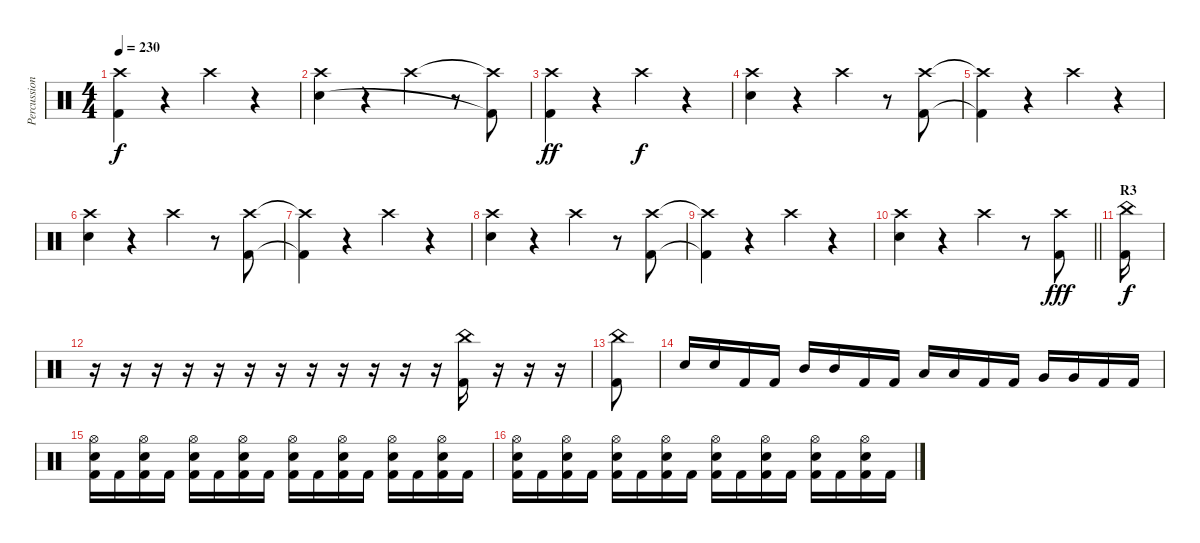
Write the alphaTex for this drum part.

\track ("Percussions" "Percussion") {instrument percussion}
\staff {score}
\articulation defaults
\ts (4 4)
\tempo 230
\clef neutral
\ks c
("Crash high (hit)"{t} "Kick (hit) 2"{t}).4{dy f} r.4 "Crash high (hit)".4 r.4 |
("Crash high (hit)" "Electric Snare (hit)").4 r.4 "Crash high (hit)".4 r.8 ("Crash high (hit)"{t} "Kick (hit) 2"{t}).8 |
("Crash high (hit)" "Kick (hit) 2").4{dy ff} r.4 "Crash high (hit)".4{dy f} r.4 |
("Crash high (hit)" "Electric Snare (hit)").4 r.4 "Crash high (hit)".4 r.8 ("Crash high (hit)" "Kick (hit) 2").8 |
("Crash high (hit)"{t} "Kick (hit) 2"{t}).4 r.4 "Crash high (hit)".4 r.4 |
("Crash high (hit)" "Electric Snare (hit)").4 r.4 "Crash high (hit)".4 r.8 ("Crash high (hit)" "Kick (hit) 2").8 |
("Crash high (hit)"{t} "Kick (hit) 2"{t}).4 r.4 "Crash high (hit)".4 r.4 |
("Crash high (hit)" "Electric Snare (hit)").4 r.4 "Crash high (hit)".4 r.8 ("Crash high (hit)" "Kick (hit) 2").8 |
("Crash high (hit)"{t} "Kick (hit) 2"{t}).4 r.4 "Crash high (hit)".4 r.4 |
\barLineRight lightlight
("Crash high (hit)" "Electric Snare (hit)").4 r.4 "Crash high (hit)".4 r.8 ("Crash high (hit)" "Kick (hit) 2").8{dy fff} |
\section ("" "R3")
("China (hit)" "Kick (hit) 2").16{dy f} |
r.16 r.16 r.16 r.16 r.16 r.16 r.16 r.16 r.16 r.16 r.16 r.16 ("China (hit)" "Kick (hit) 2").16 r.16 r.16 r.16 |
("China (hit)" "Kick (hit) 2").8 |
"Electric Snare (hit)".16 "Electric Snare (hit)".16 "Kick (hit) 2".16 "Kick (hit) 2".16 "Mid Tom (hit)".16 "Mid Tom (hit)".16 "Kick (hit) 2".16 "Kick (hit) 2".16 "Low Tom (hit)".16 "Low Tom (hit)".16 "Kick (hit) 2".16 "Kick (hit) 2".16 "Very Low Tom (hit)".16 "Very Low Tom (hit)".16 "Kick (hit) 2".16 "Kick (hit) 2".16 |
("Hi-Hat (open)" "Electric Snare (hit)" "Kick (hit) 2").16 "Kick (hit) 2".16 ("Hi-Hat (open)" "Electric Snare (hit)" "Kick (hit) 2").16 "Kick (hit) 2".16 ("Hi-Hat (open)" "Electric Snare (hit)" "Kick (hit) 2").16 "Kick (hit) 2".16 ("Hi-Hat (open)" "Electric Snare (hit)" "Kick (hit) 2").16 "Kick (hit) 2".16 ("Hi-Hat (open)" "Electric Snare (hit)" "Kick (hit) 2").16 "Kick (hit) 2".16 ("Hi-Hat (open)" "Electric Snare (hit)" "Kick (hit) 2").16 "Kick (hit) 2".16 ("Hi-Hat (open)" "Electric Snare (hit)" "Kick (hit) 2").16 "Kick (hit) 2".16 ("Hi-Hat (open)" "Electric Snare (hit)" "Kick (hit) 2").16 "Kick (hit) 2".16 |
("Hi-Hat (open)" "Electric Snare (hit)" "Kick (hit) 2").16 "Kick (hit) 2".16 ("Hi-Hat (open)" "Electric Snare (hit)" "Kick (hit) 2").16 "Kick (hit) 2".16 ("Hi-Hat (open)" "Electric Snare (hit)" "Kick (hit) 2").16 "Kick (hit) 2".16 ("Hi-Hat (open)" "Electric Snare (hit)" "Kick (hit) 2").16 "Kick (hit) 2".16 ("Hi-Hat (open)" "Electric Snare (hit)" "Kick (hit) 2").16 "Kick (hit) 2".16 ("Hi-Hat (open)" "Electric Snare (hit)" "Kick (hit) 2").16 "Kick (hit) 2".16 ("Hi-Hat (open)" "Electric Snare (hit)" "Kick (hit) 2").16 "Kick (hit) 2".16 ("Hi-Hat (open)" "Electric Snare (hit)" "Kick (hit) 2").16 "Kick (hit) 2".16
